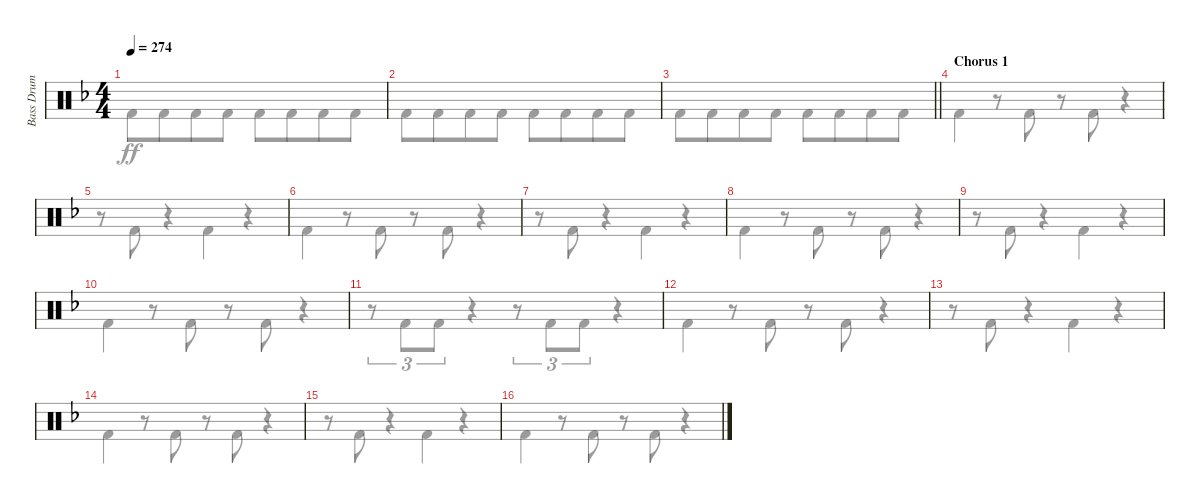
\track ("Bass Drum" "Bass Drum") {instrument percussion}
\staff {score}
\articulation defaults
\voice
\ts (4 4)
\tempo 274
\clef neutral
\ks dminor
|
|
\barLineRight lightlight
|
\section ("" "Chorus 1")
|
|
|
|
|
|
|
|
|
|
|
|
\voice
\clef neutral
\ks dminor "Kick (hit) 2".8{dy ff} "Kick (hit) 2".8{beam merge} "Kick (hit) 2".8 "Kick (hit) 2".8 "Kick (hit) 2".8 "Kick (hit) 2".8{beam merge} "Kick (hit) 2".8 "Kick (hit) 2".8
|
"Kick (hit) 2".8 "Kick (hit) 2".8{beam merge} "Kick (hit) 2".8 "Kick (hit) 2".8 "Kick (hit) 2".8 "Kick (hit) 2".8{beam merge} "Kick (hit) 2".8 "Kick (hit) 2".8 |
\barLineRight lightlight "Kick (hit) 2".8 "Kick (hit) 2".8{beam merge} "Kick (hit) 2".8 "Kick (hit) 2".8 "Kick (hit) 2".8 "Kick (hit) 2".8{beam merge} "Kick (hit) 2".8 "Kick (hit) 2".8
|
"Kick (hit) 2".4 r.8 "Kick (hit) 2".8 r.8 "Kick (hit) 2".8 r.4 |
r.8 "Kick (hit) 2".8 r.4 "Kick (hit) 2".4 r.4 |
"Kick (hit) 2".4 r.8 "Kick (hit) 2".8 r.8 "Kick (hit) 2".8 r.4 |
r.8 "Kick (hit) 2".8 r.4 "Kick (hit) 2".4 r.4 |
"Kick (hit) 2".4 r.8 "Kick (hit) 2".8 r.8 "Kick (hit) 2".8 r.4 |
r.8 "Kick (hit) 2".8 r.4 "Kick (hit) 2".4 r.4 |
"Kick (hit) 2".4 r.8 "Kick (hit) 2".8 r.8 "Kick (hit) 2".8 r.4 |
r.8{tu (3 2)} "Kick (hit) 2".8{tu (3 2)} "Kick (hit) 2".8{tu (3 2)} r.4 r.8{tu (3 2)} "Kick (hit) 2".8{tu (3 2)} "Kick (hit) 2".8{tu (3 2)} r.4 |
"Kick (hit) 2".4 r.8 "Kick (hit) 2".8 r.8 "Kick (hit) 2".8 r.4 |
r.8 "Kick (hit) 2".8 r.4 "Kick (hit) 2".4 r.4 |
"Kick (hit) 2".4 r.8 "Kick (hit) 2".8 r.8 "Kick (hit) 2".8 r.4 |
r.8 "Kick (hit) 2".8 r.4 "Kick (hit) 2".4 r.4 |
"Kick (hit) 2".4 r.8 "Kick (hit) 2".8 r.8 "Kick (hit) 2".8 r.4
